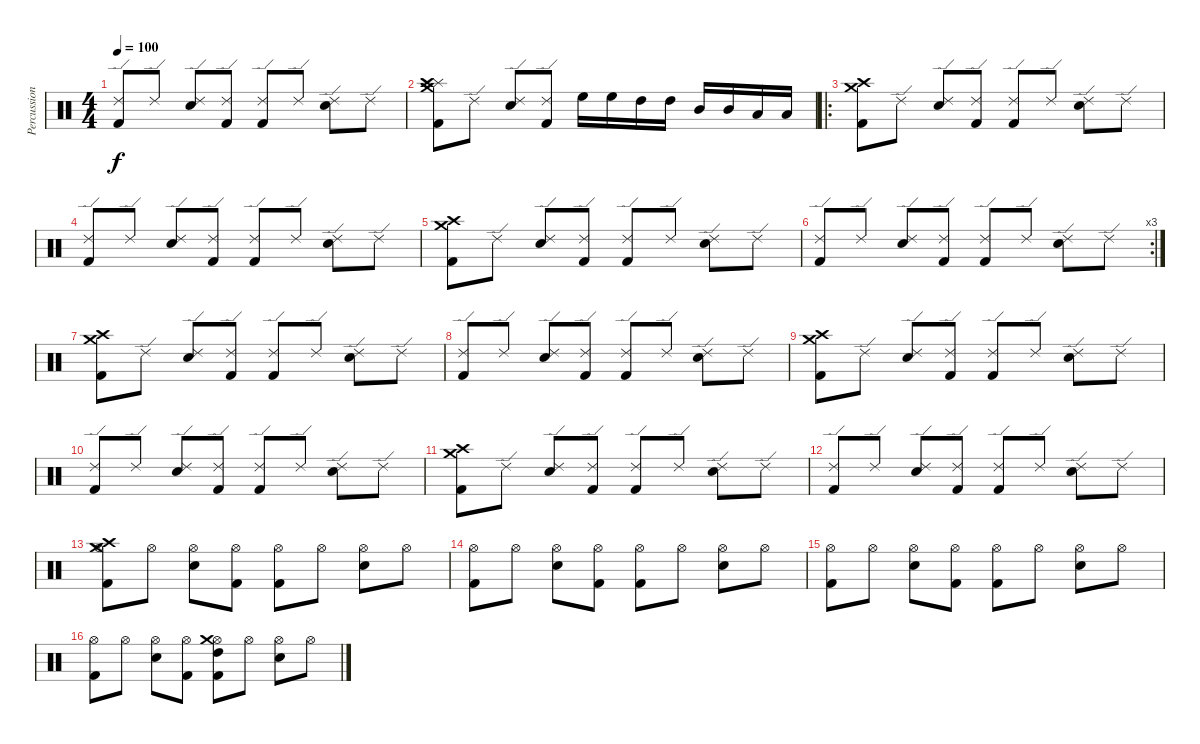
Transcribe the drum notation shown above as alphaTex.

\track ("Percussion" "Percussion") {instrument percussion}
\staff {score}
\articulation defaults
\ts (4 4)
\tempo 100
\clef neutral
\ks c
("Ride (edge) 2" "Kick (hit) 2").8{dy f} "Ride (edge) 2".8 ("Ride (edge) 2" "Electric Snare (hit)").8 ("Ride (edge) 2" "Kick (hit) 2").8 ("Ride (edge) 2" "Kick (hit) 2").8 "Ride (edge) 2".8 ("Ride (edge) 2" "Electric Snare (hit)").8 "Ride (edge) 2".8 |
("Splash (hit)" "Crash high (hit)" "Crash medium (hit)" "Kick (hit) 2").8 "Ride (edge) 2".8 ("Ride (edge) 2" "Electric Snare (hit)").8 ("Ride (edge) 2" "Kick (hit) 2").8 "High Floor Tom (hit)".16 "High Floor Tom (hit)".16 "High Tom (hit)".16 "High Tom (hit)".16 "Mid Tom (hit)".16 "Mid Tom (hit)".16 "Low Tom (hit)".16 "Low Tom (hit)".16 |
\ro
("Crash high (hit)" "Crash medium (hit)" "Kick (hit) 2").8 "Ride (edge) 2".8 ("Ride (edge) 2" "Electric Snare (hit)").8 ("Ride (edge) 2" "Kick (hit) 2").8 ("Ride (edge) 2" "Kick (hit) 2").8 "Ride (edge) 2".8 ("Ride (edge) 2" "Electric Snare (hit)").8 "Ride (edge) 2".8 |
("Kick (hit) 2" "Ride (edge) 2").8 "Ride (edge) 2".8 ("Ride (edge) 2" "Electric Snare (hit)").8 ("Ride (edge) 2" "Kick (hit) 2").8 ("Ride (edge) 2" "Kick (hit) 2").8 "Ride (edge) 2".8 ("Ride (edge) 2" "Electric Snare (hit)").8 "Ride (edge) 2".8 |
("Crash high (hit)" "Crash medium (hit)" "Kick (hit) 2").8 "Ride (edge) 2".8 ("Ride (edge) 2" "Electric Snare (hit)").8 ("Ride (edge) 2" "Kick (hit) 2").8 ("Ride (edge) 2" "Kick (hit) 2").8 "Ride (edge) 2".8 ("Ride (edge) 2" "Electric Snare (hit)").8 "Ride (edge) 2".8 |
\rc 3
("Kick (hit) 2" "Ride (edge) 2").8 "Ride (edge) 2".8 ("Ride (edge) 2" "Electric Snare (hit)").8 ("Ride (edge) 2" "Kick (hit) 2").8 ("Ride (edge) 2" "Kick (hit) 2").8 "Ride (edge) 2".8 ("Ride (edge) 2" "Electric Snare (hit)").8 "Ride (edge) 2".8 |
("Crash high (hit)" "Crash medium (hit)" "Kick (hit) 2").8 "Ride (edge) 2".8 ("Ride (edge) 2" "Electric Snare (hit)").8 ("Ride (edge) 2" "Kick (hit) 2").8 ("Ride (edge) 2" "Kick (hit) 2").8 "Ride (edge) 2".8 ("Ride (edge) 2" "Electric Snare (hit)").8 "Ride (edge) 2".8 |
("Kick (hit) 2" "Ride (edge) 2").8 "Ride (edge) 2".8 ("Ride (edge) 2" "Electric Snare (hit)").8 ("Ride (edge) 2" "Kick (hit) 2").8 ("Ride (edge) 2" "Kick (hit) 2").8 "Ride (edge) 2".8 ("Ride (edge) 2" "Electric Snare (hit)").8 "Ride (edge) 2".8 |
("Crash high (hit)" "Crash medium (hit)" "Kick (hit) 2").8 "Ride (edge) 2".8 ("Ride (edge) 2" "Electric Snare (hit)").8 ("Ride (edge) 2" "Kick (hit) 2").8 ("Ride (edge) 2" "Kick (hit) 2").8 "Ride (edge) 2".8 ("Ride (edge) 2" "Electric Snare (hit)").8 "Ride (edge) 2".8 |
("Kick (hit) 2" "Ride (edge) 2").8 "Ride (edge) 2".8 ("Ride (edge) 2" "Electric Snare (hit)").8 ("Ride (edge) 2" "Kick (hit) 2").8 ("Ride (edge) 2" "Kick (hit) 2").8 "Ride (edge) 2".8 ("Ride (edge) 2" "Electric Snare (hit)").8 "Ride (edge) 2".8 |
("Crash high (hit)" "Crash medium (hit)" "Kick (hit) 2").8 "Ride (edge) 2".8 ("Ride (edge) 2" "Electric Snare (hit)").8 ("Ride (edge) 2" "Kick (hit) 2").8 ("Ride (edge) 2" "Kick (hit) 2").8 "Ride (edge) 2".8 ("Ride (edge) 2" "Electric Snare (hit)").8 "Ride (edge) 2".8 |
("Kick (hit) 2" "Ride (edge) 2").8 "Ride (edge) 2".8 ("Ride (edge) 2" "Electric Snare (hit)").8 ("Ride (edge) 2" "Kick (hit) 2").8 ("Ride (edge) 2" "Kick (hit) 2").8 "Ride (edge) 2".8 ("Ride (edge) 2" "Electric Snare (hit)").8 "Ride (edge) 2".8 |
("Crash high (hit)" "Crash medium (hit)" "Kick (hit) 2" "Hi-Hat (open)").8 "Hi-Hat (open)".8 ("Hi-Hat (open)" "Electric Snare (hit)").8 ("Hi-Hat (open)" "Kick (hit) 2").8 ("Hi-Hat (open)" "Kick (hit) 2").8 "Hi-Hat (open)".8 ("Hi-Hat (open)" "Electric Snare (hit)").8 "Hi-Hat (open)".8 |
("Kick (hit) 2" "Hi-Hat (open)").8 "Hi-Hat (open)".8 ("Hi-Hat (open)" "Electric Snare (hit)").8 ("Hi-Hat (open)" "Kick (hit) 2").8 ("Hi-Hat (open)" "Kick (hit) 2").8 "Hi-Hat (open)".8 ("Hi-Hat (open)" "Electric Snare (hit)").8 "Hi-Hat (open)".8 |
("Kick (hit) 2" "Hi-Hat (open)").8 "Hi-Hat (open)".8 ("Hi-Hat (open)" "Electric Snare (hit)").8 ("Hi-Hat (open)" "Kick (hit) 2").8 ("Hi-Hat (open)" "Kick (hit) 2").8 "Hi-Hat (open)".8 ("Hi-Hat (open)" "Electric Snare (hit)").8 "Hi-Hat (open)".8 |
("Kick (hit) 2" "Hi-Hat (open)").8 "Hi-Hat (open)".8 ("Hi-Hat (open)" "Electric Snare (hit)").8 ("Hi-Hat (open)" "Kick (hit) 2").8 ("Hi-Hat (open)" "Kick (hit) 2" "Crash medium (hit)" "High Tom (hit)").8 "Hi-Hat (open)".8 ("Hi-Hat (open)" "Electric Snare (hit)").8 "Hi-Hat (open)".8
